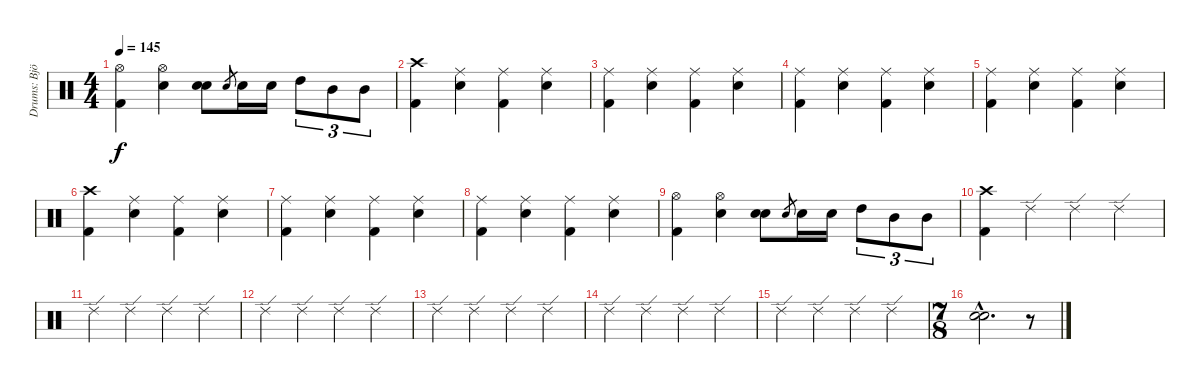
\track ("Drums: Björn Fryklund" "Drums: Bjö") {instrument percussion}
\staff {score}
\articulation defaults
\ts (4 4)
\tempo 145
\clef neutral
\ks c
("Hi-Hat (open)" "Kick (hit) 2").4{dy f} ("Hi-Hat (open)" "Snare (hit) 2").4 ("Snare (hit) 2" "Snare (hit) 2").8 "Snare (hit) 2".8{gr} "Snare (hit) 2".16 "Snare (hit) 2".16 "High Tom (hit)".8{tu (3 2)} "Mid Tom (hit)".8{tu (3 2)} "Mid Tom (hit)".8{tu (3 2)} |
("Crash high (hit)" "Kick (hit) 2").4 ("Ride (middle)" "Snare (hit) 2").4 ("Ride (middle)" "Kick (hit) 2").4 ("Ride (middle)" "Snare (hit) 2").4 |
("Ride (middle)" "Kick (hit) 2").4 ("Ride (middle)" "Snare (hit) 2").4 ("Ride (middle)" "Kick (hit) 2").4 ("Ride (middle)" "Snare (hit) 2").4 |
("Ride (middle)" "Kick (hit) 2").4 ("Ride (middle)" "Snare (hit) 2").4 ("Ride (middle)" "Kick (hit) 2").4 ("Ride (middle)" "Snare (hit) 2").4 |
("Ride (middle)" "Kick (hit) 2").4 ("Ride (middle)" "Snare (hit) 2").4 ("Ride (middle)" "Kick (hit) 2").4 ("Ride (middle)" "Snare (hit) 2").4 |
("Crash high (hit)" "Kick (hit) 2").4 ("Ride (middle)" "Snare (hit) 2").4 ("Ride (middle)" "Kick (hit) 2").4 ("Ride (middle)" "Snare (hit) 2").4 |
("Ride (middle)" "Kick (hit) 2").4 ("Ride (middle)" "Snare (hit) 2").4 ("Ride (middle)" "Kick (hit) 2").4 ("Ride (middle)" "Snare (hit) 2").4 |
("Ride (middle)" "Kick (hit) 2").4 ("Ride (middle)" "Snare (hit) 2").4 ("Ride (middle)" "Kick (hit) 2").4 ("Ride (middle)" "Snare (hit) 2").4 |
("Hi-Hat (open)" "Kick (hit) 2").4 ("Hi-Hat (open)" "Snare (hit) 2").4 ("Snare (hit) 2" "Snare (hit) 2").8 "Snare (hit) 2".8{gr} "Snare (hit) 2".16 "Snare (hit) 2".16 "High Tom (hit)".8{tu (3 2)} "Mid Tom (hit)".8{tu (3 2)} "Mid Tom (hit)".8{tu (3 2)} |
("Crash high (hit)" "Kick (hit) 2").4 "Ride (edge) 2".4 "Ride (edge) 2".4 "Ride (edge) 2".4 |
"Ride (edge) 2".4 "Ride (edge) 2".4 "Ride (edge) 2".4 "Ride (edge) 2".4 |
"Ride (edge) 2".4 "Ride (edge) 2".4 "Ride (edge) 2".4 "Ride (edge) 2".4 |
"Ride (edge) 2".4 "Ride (edge) 2".4 "Ride (edge) 2".4 "Ride (edge) 2".4 |
"Ride (edge) 2".4 "Ride (edge) 2".4 "Ride (edge) 2".4 "Ride (edge) 2".4 |
"Ride (edge) 2".4 "Ride (edge) 2".4 "Ride (edge) 2".4 "Ride (edge) 2".4 |
\ts (7 8)
("Snare (hit) 2"{hac} "Snare (hit) 2"{hac}).2{d} r.8
